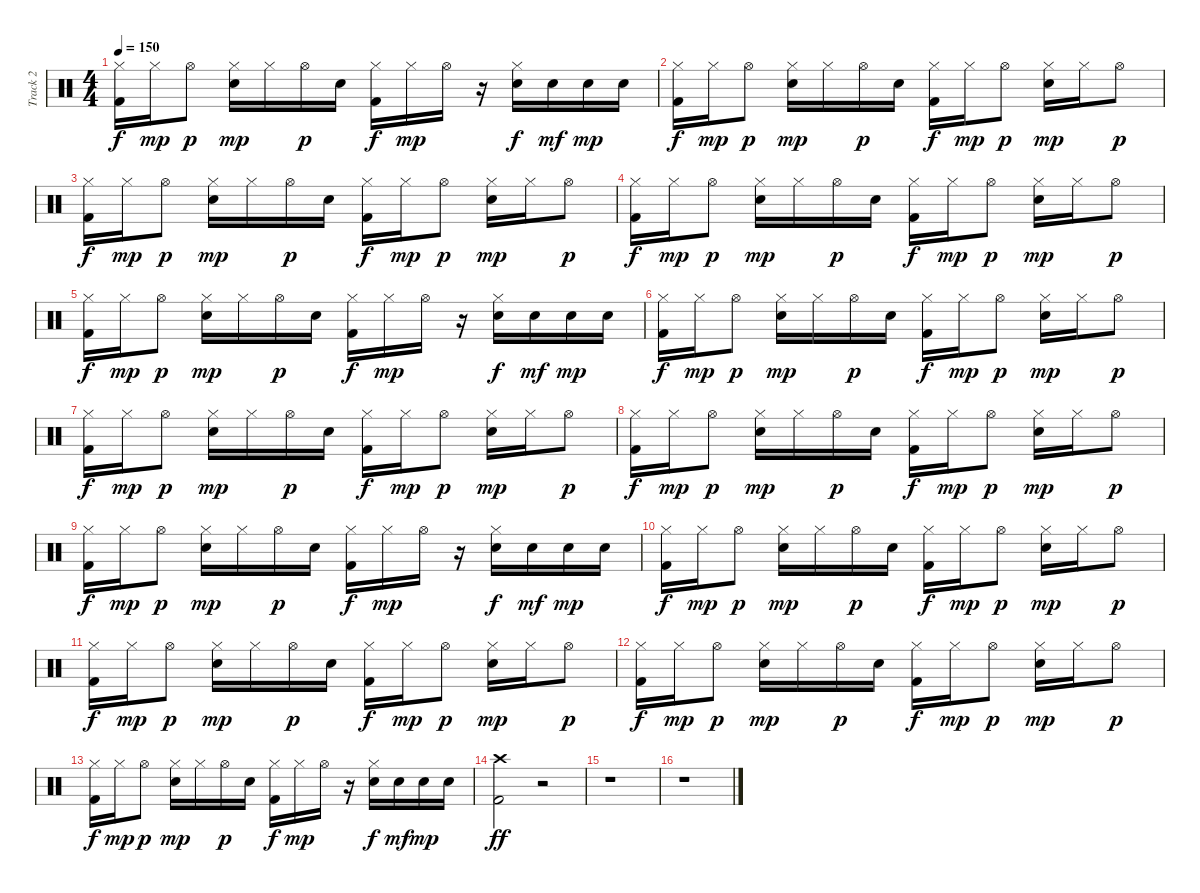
\track ("Track 2" "Track 2") {instrument percussion}
\staff {score}
\articulation defaults
\ts (4 4)
\tempo 150
\clef neutral
\ks c
("Hi-Hat (closed)" "Kick (hit) 2").16{dy f} "Hi-Hat (closed)".16{dy mp} "Hi-Hat (open)".8{dy p} ("Hi-Hat (closed)" "Electric Snare (hit)").16{dy mp} "Hi-Hat (closed)".16 "Hi-Hat (open)".16{dy p} "Electric Snare (hit)".16 ("Hi-Hat (closed)" "Kick (hit) 2").16{dy f} "Hi-Hat (closed)".16{dy mp} "Hi-Hat (open)".16 r.16 ("Hi-Hat (closed)" "Electric Snare (hit)").16{dy f} "Electric Snare (hit)".16{dy mf} "Electric Snare (hit)".16{dy mp} "Electric Snare (hit)".16 |
("Hi-Hat (closed)" "Kick (hit) 2").16{dy f} "Hi-Hat (closed)".16{dy mp} "Hi-Hat (open)".8{dy p} ("Hi-Hat (closed)" "Electric Snare (hit)").16{dy mp} "Hi-Hat (closed)".16 "Hi-Hat (open)".16{dy p} "Electric Snare (hit)".16 ("Hi-Hat (closed)" "Kick (hit) 2").16{dy f} "Hi-Hat (closed)".16{dy mp} "Hi-Hat (open)".8{dy p} ("Hi-Hat (closed)" "Electric Snare (hit)").16{dy mp} "Hi-Hat (closed)".16 "Hi-Hat (open)".8{dy p} |
("Hi-Hat (closed)" "Kick (hit) 2").16{dy f} "Hi-Hat (closed)".16{dy mp} "Hi-Hat (open)".8{dy p} ("Hi-Hat (closed)" "Electric Snare (hit)").16{dy mp} "Hi-Hat (closed)".16 "Hi-Hat (open)".16{dy p} "Electric Snare (hit)".16 ("Hi-Hat (closed)" "Kick (hit) 2").16{dy f} "Hi-Hat (closed)".16{dy mp} "Hi-Hat (open)".8{dy p} ("Hi-Hat (closed)" "Electric Snare (hit)").16{dy mp} "Hi-Hat (closed)".16 "Hi-Hat (open)".8{dy p} |
("Hi-Hat (closed)" "Kick (hit) 2").16{dy f} "Hi-Hat (closed)".16{dy mp} "Hi-Hat (open)".8{dy p} ("Hi-Hat (closed)" "Electric Snare (hit)").16{dy mp} "Hi-Hat (closed)".16 "Hi-Hat (open)".16{dy p} "Electric Snare (hit)".16 ("Hi-Hat (closed)" "Kick (hit) 2").16{dy f} "Hi-Hat (closed)".16{dy mp} "Hi-Hat (open)".8{dy p} ("Hi-Hat (closed)" "Electric Snare (hit)").16{dy mp} "Hi-Hat (closed)".16 "Hi-Hat (open)".8{dy p} |
("Hi-Hat (closed)" "Kick (hit) 2").16{dy f} "Hi-Hat (closed)".16{dy mp} "Hi-Hat (open)".8{dy p} ("Hi-Hat (closed)" "Electric Snare (hit)").16{dy mp} "Hi-Hat (closed)".16 "Hi-Hat (open)".16{dy p} "Electric Snare (hit)".16 ("Hi-Hat (closed)" "Kick (hit) 2").16{dy f} "Hi-Hat (closed)".16{dy mp} "Hi-Hat (open)".16 r.16 ("Hi-Hat (closed)" "Electric Snare (hit)").16{dy f} "Electric Snare (hit)".16{dy mf} "Electric Snare (hit)".16{dy mp} "Electric Snare (hit)".16 |
("Hi-Hat (closed)" "Kick (hit) 2").16{dy f} "Hi-Hat (closed)".16{dy mp} "Hi-Hat (open)".8{dy p} ("Hi-Hat (closed)" "Electric Snare (hit)").16{dy mp} "Hi-Hat (closed)".16 "Hi-Hat (open)".16{dy p} "Electric Snare (hit)".16 ("Hi-Hat (closed)" "Kick (hit) 2").16{dy f} "Hi-Hat (closed)".16{dy mp} "Hi-Hat (open)".8{dy p} ("Hi-Hat (closed)" "Electric Snare (hit)").16{dy mp} "Hi-Hat (closed)".16 "Hi-Hat (open)".8{dy p} |
("Hi-Hat (closed)" "Kick (hit) 2").16{dy f} "Hi-Hat (closed)".16{dy mp} "Hi-Hat (open)".8{dy p} ("Hi-Hat (closed)" "Electric Snare (hit)").16{dy mp} "Hi-Hat (closed)".16 "Hi-Hat (open)".16{dy p} "Electric Snare (hit)".16 ("Hi-Hat (closed)" "Kick (hit) 2").16{dy f} "Hi-Hat (closed)".16{dy mp} "Hi-Hat (open)".8{dy p} ("Hi-Hat (closed)" "Electric Snare (hit)").16{dy mp} "Hi-Hat (closed)".16 "Hi-Hat (open)".8{dy p} |
("Hi-Hat (closed)" "Kick (hit) 2").16{dy f} "Hi-Hat (closed)".16{dy mp} "Hi-Hat (open)".8{dy p} ("Hi-Hat (closed)" "Electric Snare (hit)").16{dy mp} "Hi-Hat (closed)".16 "Hi-Hat (open)".16{dy p} "Electric Snare (hit)".16 ("Hi-Hat (closed)" "Kick (hit) 2").16{dy f} "Hi-Hat (closed)".16{dy mp} "Hi-Hat (open)".8{dy p} ("Hi-Hat (closed)" "Electric Snare (hit)").16{dy mp} "Hi-Hat (closed)".16 "Hi-Hat (open)".8{dy p} |
("Hi-Hat (closed)" "Kick (hit) 2").16{dy f} "Hi-Hat (closed)".16{dy mp} "Hi-Hat (open)".8{dy p} ("Hi-Hat (closed)" "Electric Snare (hit)").16{dy mp} "Hi-Hat (closed)".16 "Hi-Hat (open)".16{dy p} "Electric Snare (hit)".16 ("Hi-Hat (closed)" "Kick (hit) 2").16{dy f} "Hi-Hat (closed)".16{dy mp} "Hi-Hat (open)".16 r.16 ("Hi-Hat (closed)" "Electric Snare (hit)").16{dy f} "Electric Snare (hit)".16{dy mf} "Electric Snare (hit)".16{dy mp} "Electric Snare (hit)".16 |
("Hi-Hat (closed)" "Kick (hit) 2").16{dy f} "Hi-Hat (closed)".16{dy mp} "Hi-Hat (open)".8{dy p} ("Hi-Hat (closed)" "Electric Snare (hit)").16{dy mp} "Hi-Hat (closed)".16 "Hi-Hat (open)".16{dy p} "Electric Snare (hit)".16 ("Hi-Hat (closed)" "Kick (hit) 2").16{dy f} "Hi-Hat (closed)".16{dy mp} "Hi-Hat (open)".8{dy p} ("Hi-Hat (closed)" "Electric Snare (hit)").16{dy mp} "Hi-Hat (closed)".16 "Hi-Hat (open)".8{dy p} |
("Hi-Hat (closed)" "Kick (hit) 2").16{dy f} "Hi-Hat (closed)".16{dy mp} "Hi-Hat (open)".8{dy p} ("Hi-Hat (closed)" "Electric Snare (hit)").16{dy mp} "Hi-Hat (closed)".16 "Hi-Hat (open)".16{dy p} "Electric Snare (hit)".16 ("Hi-Hat (closed)" "Kick (hit) 2").16{dy f} "Hi-Hat (closed)".16{dy mp} "Hi-Hat (open)".8{dy p} ("Hi-Hat (closed)" "Electric Snare (hit)").16{dy mp} "Hi-Hat (closed)".16 "Hi-Hat (open)".8{dy p} |
("Hi-Hat (closed)" "Kick (hit) 2").16{dy f} "Hi-Hat (closed)".16{dy mp} "Hi-Hat (open)".8{dy p} ("Hi-Hat (closed)" "Electric Snare (hit)").16{dy mp} "Hi-Hat (closed)".16 "Hi-Hat (open)".16{dy p} "Electric Snare (hit)".16 ("Hi-Hat (closed)" "Kick (hit) 2").16{dy f} "Hi-Hat (closed)".16{dy mp} "Hi-Hat (open)".8{dy p} ("Hi-Hat (closed)" "Electric Snare (hit)").16{dy mp} "Hi-Hat (closed)".16 "Hi-Hat (open)".8{dy p} |
("Hi-Hat (closed)" "Kick (hit) 2").16{dy f} "Hi-Hat (closed)".16{dy mp} "Hi-Hat (open)".8{dy p} ("Hi-Hat (closed)" "Electric Snare (hit)").16{dy mp} "Hi-Hat (closed)".16 "Hi-Hat (open)".16{dy p} "Electric Snare (hit)".16 ("Hi-Hat (closed)" "Kick (hit) 2").16{dy f} "Hi-Hat (closed)".16{dy mp} "Hi-Hat (open)".16 r.16 ("Hi-Hat (closed)" "Electric Snare (hit)").16{dy f} "Electric Snare (hit)".16{dy mf} "Electric Snare (hit)".16{dy mp} "Electric Snare (hit)".16 |
("Crash high (hit)" "Kick (hit) 2").2{dy ff} r.2 |
r.1 |
r.1
